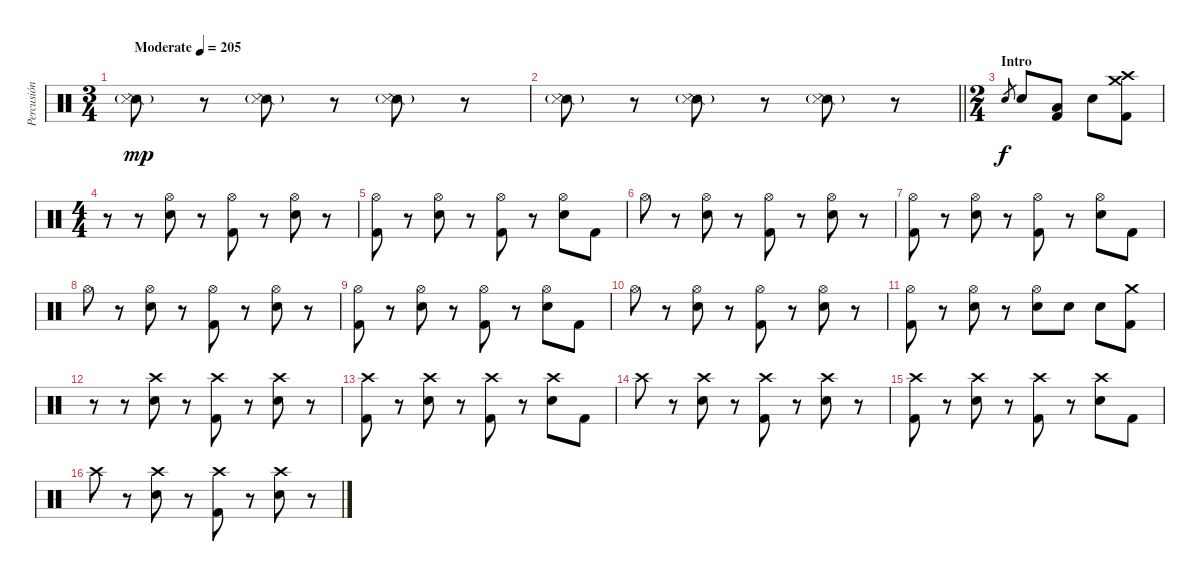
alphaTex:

\track ("Percusión" "Percusión") {instrument percussion}
\staff {score}
\articulation defaults
\ts (3 4)
\tempo (205 "Moderate")
\clef neutral
\ks c
("Snare (side stick) 2"{g} "Metronome (hit)"{g}).8{dy mp} r.8 ("Snare (side stick) 2"{g} "Metronome (hit)"{g}).8 r.8 ("Snare (side stick) 2"{g} "Metronome (hit)"{g}).8 r.8 |
\barLineRight lightlight
("Snare (side stick) 2"{g} "Metronome (hit)"{g}).8 r.8 ("Snare (side stick) 2"{g} "Metronome (hit)"{g}).8 r.8 ("Snare (side stick) 2"{g} "Metronome (hit)"{g}).8 r.8 |
\ts (2 4)
\section ("" "Intro")
"Electric Snare (hit)".8{gr dy f} "Electric Snare (hit)".8 ("Low Tom (hit)" "Kick (hit) 2").8 "Electric Snare (hit)".8 ("Crash high (hit)" "Crash medium (hit)" "Kick (hit) 2").8 |
\ts (4 4)
r.8 r.8 ("Hi-Hat (open)" "Electric Snare (hit)").8 r.8 ("Hi-Hat (open)" "Kick (hit) 2").8 r.8 ("Hi-Hat (open)" "Electric Snare (hit)").8 r.8 |
("Hi-Hat (open)" "Kick (hit) 2").8 r.8 ("Hi-Hat (open)" "Electric Snare (hit)").8 r.8 ("Hi-Hat (open)" "Kick (hit) 2").8 r.8 ("Hi-Hat (open)" "Electric Snare (hit)").8 "Kick (hit) 2".8 |
"Hi-Hat (open)".8 r.8 ("Hi-Hat (open)" "Electric Snare (hit)").8 r.8 ("Hi-Hat (open)" "Kick (hit) 2").8 r.8 ("Hi-Hat (open)" "Electric Snare (hit)").8 r.8 |
("Hi-Hat (open)" "Kick (hit) 2").8 r.8 ("Hi-Hat (open)" "Electric Snare (hit)").8 r.8 ("Hi-Hat (open)" "Kick (hit) 2").8 r.8 ("Hi-Hat (open)" "Electric Snare (hit)").8 "Kick (hit) 2".8 |
"Hi-Hat (open)".8 r.8 ("Hi-Hat (open)" "Electric Snare (hit)").8 r.8 ("Hi-Hat (open)" "Kick (hit) 2").8 r.8 ("Hi-Hat (open)" "Electric Snare (hit)").8 r.8 |
("Hi-Hat (open)" "Kick (hit) 2").8 r.8 ("Hi-Hat (open)" "Electric Snare (hit)").8 r.8 ("Hi-Hat (open)" "Kick (hit) 2").8 r.8 ("Hi-Hat (open)" "Electric Snare (hit)").8 "Kick (hit) 2".8 |
"Hi-Hat (open)".8 r.8 ("Hi-Hat (open)" "Electric Snare (hit)").8 r.8 ("Hi-Hat (open)" "Kick (hit) 2").8 r.8 ("Hi-Hat (open)" "Electric Snare (hit)").8 r.8 |
("Hi-Hat (open)" "Kick (hit) 2").8 r.8 ("Hi-Hat (open)" "Electric Snare (hit)").8 r.8 ("Hi-Hat (open)" "Electric Snare (hit)").8 "Electric Snare (hit)".8 "Electric Snare (hit)".8 ("Crash medium (hit)" "Kick (hit) 2").8 |
r.8 r.8 ("Crash high (hit)" "Electric Snare (hit)").8 r.8 ("Crash high (hit)" "Kick (hit) 2").8 r.8 ("Crash high (hit)" "Electric Snare (hit)").8 r.8 |
("Crash high (hit)" "Kick (hit) 2").8 r.8 ("Crash high (hit)" "Electric Snare (hit)").8 r.8 ("Crash high (hit)" "Kick (hit) 2").8 r.8 ("Crash high (hit)" "Electric Snare (hit)").8 "Kick (hit) 2".8 |
"Crash high (hit)".8 r.8 ("Crash high (hit)" "Electric Snare (hit)").8 r.8 ("Crash high (hit)" "Kick (hit) 2").8 r.8 ("Crash high (hit)" "Electric Snare (hit)").8 r.8 |
("Crash high (hit)" "Kick (hit) 2").8 r.8 ("Crash high (hit)" "Electric Snare (hit)").8 r.8 ("Crash high (hit)" "Kick (hit) 2").8 r.8 ("Crash high (hit)" "Electric Snare (hit)").8 "Kick (hit) 2".8 |
"Crash high (hit)".8 r.8 ("Crash high (hit)" "Electric Snare (hit)").8 r.8 ("Crash high (hit)" "Kick (hit) 2").8 r.8 ("Crash high (hit)" "Electric Snare (hit)").8 r.8
